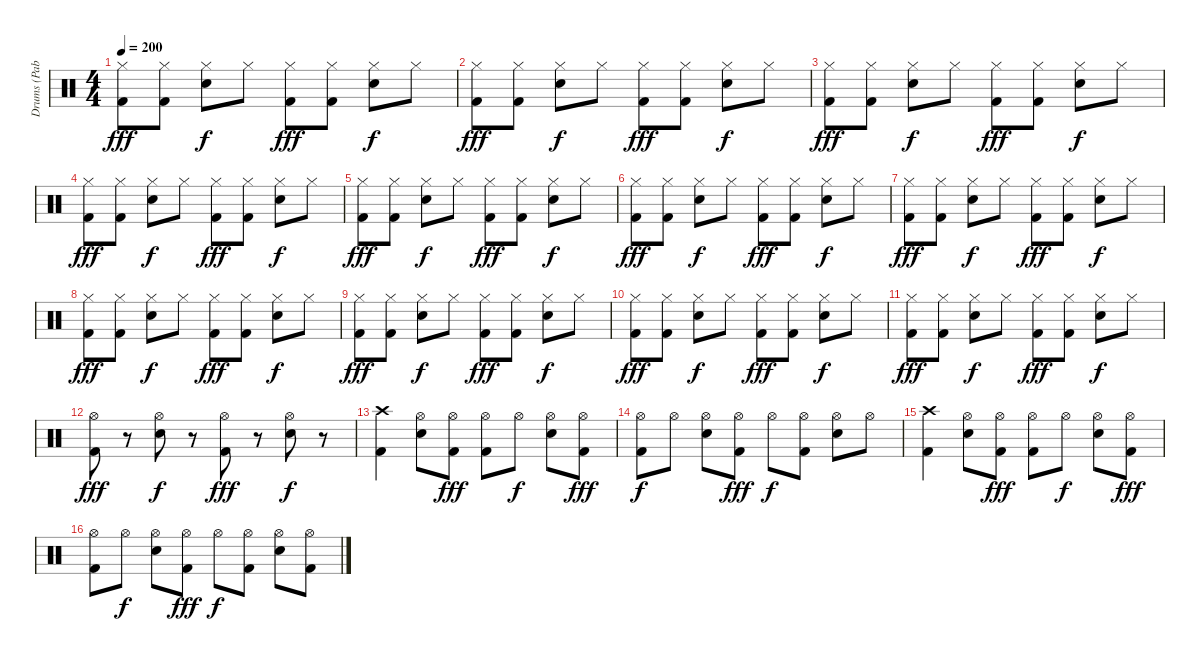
\track ("Drums (Pablo)" "Drums (Pab") {instrument percussion}
\staff {score}
\articulation defaults
\ts (4 4)
\tempo 200
\clef neutral
\ks c
("Hi-Hat (closed)" "Kick (hit) 2").8{dy fff} ("Hi-Hat (closed)" "Kick (hit) 2").8 ("Hi-Hat (closed)" "Electric Snare (hit)").8{dy f} "Hi-Hat (closed)".8 ("Hi-Hat (closed)" "Kick (hit) 2").8{dy fff} ("Hi-Hat (closed)" "Kick (hit) 2").8 ("Hi-Hat (closed)" "Electric Snare (hit)").8{dy f} "Hi-Hat (closed)".8 |
("Hi-Hat (closed)" "Kick (hit) 2").8{dy fff} ("Hi-Hat (closed)" "Kick (hit) 2").8 ("Hi-Hat (closed)" "Electric Snare (hit)").8{dy f} "Hi-Hat (closed)".8 ("Hi-Hat (closed)" "Kick (hit) 2").8{dy fff} ("Hi-Hat (closed)" "Kick (hit) 2").8 ("Hi-Hat (closed)" "Electric Snare (hit)").8{dy f} "Hi-Hat (closed)".8 |
("Hi-Hat (closed)" "Kick (hit) 2").8{dy fff} ("Hi-Hat (closed)" "Kick (hit) 2").8 ("Hi-Hat (closed)" "Electric Snare (hit)").8{dy f} "Hi-Hat (closed)".8 ("Hi-Hat (closed)" "Kick (hit) 2").8{dy fff} ("Hi-Hat (closed)" "Kick (hit) 2").8 ("Hi-Hat (closed)" "Electric Snare (hit)").8{dy f} "Hi-Hat (closed)".8 |
("Hi-Hat (closed)" "Kick (hit) 2").8{dy fff} ("Hi-Hat (closed)" "Kick (hit) 2").8 ("Hi-Hat (closed)" "Electric Snare (hit)").8{dy f} "Hi-Hat (closed)".8 ("Hi-Hat (closed)" "Kick (hit) 2").8{dy fff} ("Hi-Hat (closed)" "Kick (hit) 2").8 ("Hi-Hat (closed)" "Electric Snare (hit)").8{dy f} "Hi-Hat (closed)".8 |
("Hi-Hat (closed)" "Kick (hit) 2").8{dy fff} ("Hi-Hat (closed)" "Kick (hit) 2").8 ("Hi-Hat (closed)" "Electric Snare (hit)").8{dy f} "Hi-Hat (closed)".8 ("Hi-Hat (closed)" "Kick (hit) 2").8{dy fff} ("Hi-Hat (closed)" "Kick (hit) 2").8 ("Hi-Hat (closed)" "Electric Snare (hit)").8{dy f} "Hi-Hat (closed)".8 |
("Hi-Hat (closed)" "Kick (hit) 2").8{dy fff} ("Hi-Hat (closed)" "Kick (hit) 2").8 ("Hi-Hat (closed)" "Electric Snare (hit)").8{dy f} "Hi-Hat (closed)".8 ("Hi-Hat (closed)" "Kick (hit) 2").8{dy fff} ("Hi-Hat (closed)" "Kick (hit) 2").8 ("Hi-Hat (closed)" "Electric Snare (hit)").8{dy f} "Hi-Hat (closed)".8 |
("Hi-Hat (closed)" "Kick (hit) 2").8{dy fff} ("Hi-Hat (closed)" "Kick (hit) 2").8 ("Hi-Hat (closed)" "Electric Snare (hit)").8{dy f} "Hi-Hat (closed)".8 ("Hi-Hat (closed)" "Kick (hit) 2").8{dy fff} ("Hi-Hat (closed)" "Kick (hit) 2").8 ("Hi-Hat (closed)" "Electric Snare (hit)").8{dy f} "Hi-Hat (closed)".8 |
("Hi-Hat (closed)" "Kick (hit) 2").8{dy fff} ("Hi-Hat (closed)" "Kick (hit) 2").8 ("Hi-Hat (closed)" "Electric Snare (hit)").8{dy f} "Hi-Hat (closed)".8 ("Hi-Hat (closed)" "Kick (hit) 2").8{dy fff} ("Hi-Hat (closed)" "Kick (hit) 2").8 ("Hi-Hat (closed)" "Electric Snare (hit)").8{dy f} "Hi-Hat (closed)".8 |
("Hi-Hat (closed)" "Kick (hit) 2").8{dy fff} ("Hi-Hat (closed)" "Kick (hit) 2").8 ("Hi-Hat (closed)" "Electric Snare (hit)").8{dy f} "Hi-Hat (closed)".8 ("Hi-Hat (closed)" "Kick (hit) 2").8{dy fff} ("Hi-Hat (closed)" "Kick (hit) 2").8 ("Hi-Hat (closed)" "Electric Snare (hit)").8{dy f} "Hi-Hat (closed)".8 |
("Hi-Hat (closed)" "Kick (hit) 2").8{dy fff} ("Hi-Hat (closed)" "Kick (hit) 2").8 ("Hi-Hat (closed)" "Electric Snare (hit)").8{dy f} "Hi-Hat (closed)".8 ("Hi-Hat (closed)" "Kick (hit) 2").8{dy fff} ("Hi-Hat (closed)" "Kick (hit) 2").8 ("Hi-Hat (closed)" "Electric Snare (hit)").8{dy f} "Hi-Hat (closed)".8 |
("Hi-Hat (closed)" "Kick (hit) 2").8{dy fff} ("Hi-Hat (closed)" "Kick (hit) 2").8 ("Hi-Hat (closed)" "Electric Snare (hit)").8{dy f} "Hi-Hat (closed)".8 ("Hi-Hat (closed)" "Kick (hit) 2").8{dy fff} ("Hi-Hat (closed)" "Kick (hit) 2").8 ("Hi-Hat (closed)" "Electric Snare (hit)").8{dy f} "Hi-Hat (closed)".8 |
("Hi-Hat (open)" "Kick (hit) 2").8{dy fff} r.8 ("Hi-Hat (open)" "Electric Snare (hit)").8{dy f} r.8 ("Hi-Hat (open)" "Kick (hit) 2").8{dy fff} r.8 ("Hi-Hat (open)" "Electric Snare (hit)").8{dy f} r.8 |
("Crash high (hit)" "Kick (hit) 2").4 ("Hi-Hat (open)" "Electric Snare (hit)").8 ("Hi-Hat (open)" "Kick (hit) 2").8{dy fff} ("Hi-Hat (open)" "Kick (hit) 2").8 "Hi-Hat (open)".8{dy f} ("Hi-Hat (open)" "Electric Snare (hit)").8 ("Hi-Hat (open)" "Kick (hit) 2").8{dy fff} |
("Hi-Hat (open)" "Kick (hit) 2").8{dy f} "Hi-Hat (open)".8 ("Hi-Hat (open)" "Electric Snare (hit)").8 ("Hi-Hat (open)" "Kick (hit) 2").8{dy fff} "Hi-Hat (open)".8{dy f} ("Hi-Hat (open)" "Kick (hit) 2").8 ("Hi-Hat (open)" "Electric Snare (hit)").8 "Hi-Hat (open)".8 |
("Crash high (hit)" "Kick (hit) 2").4 ("Hi-Hat (open)" "Electric Snare (hit)").8 ("Hi-Hat (open)" "Kick (hit) 2").8{dy fff} ("Hi-Hat (open)" "Kick (hit) 2").8 "Hi-Hat (open)".8{dy f} ("Hi-Hat (open)" "Electric Snare (hit)").8 ("Hi-Hat (open)" "Kick (hit) 2").8{dy fff} |
("Hi-Hat (open)" "Kick (hit) 2").8 "Hi-Hat (open)".8{dy f} ("Hi-Hat (open)" "Electric Snare (hit)").8 ("Hi-Hat (open)" "Kick (hit) 2").8{dy fff} "Hi-Hat (open)".8{dy f} ("Hi-Hat (open)" "Kick (hit) 2").8 ("Hi-Hat (open)" "Electric Snare (hit)").8 ("Hi-Hat (open)" "Kick (hit) 2").8
